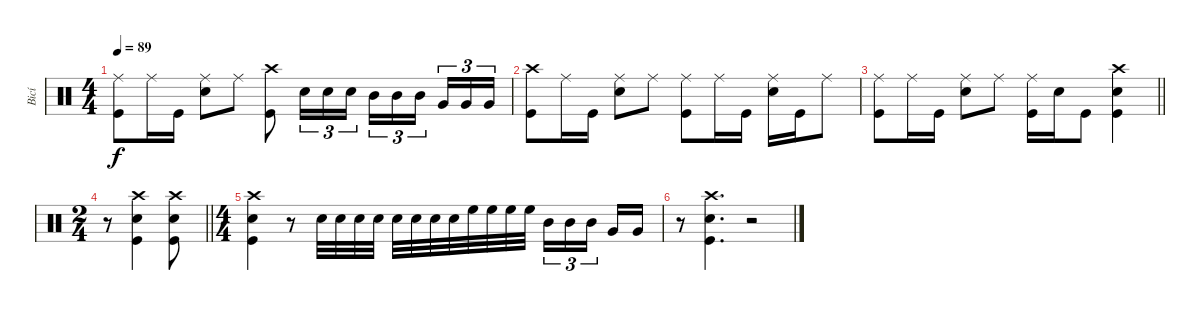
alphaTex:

\track ("Bicí" "Bicí") {instrument percussion}
\staff {score}
\articulation defaults
\ts (4 4)
\tempo 89
\clef neutral
\ks c
("Kick (hit)" "Ride (middle)").8{dy f} "Ride (middle)".16{beam merge} "Kick (hit)".16 ("Snare (hit) 2" "Ride (middle)").8 "Ride (middle)".8 ("Kick (hit)" "Crash high (hit)").8 "Snare (hit) 2".16{tu (3 2)} "Snare (hit) 2".16{tu (3 2)} "Snare (hit) 2".16{tu (3 2)} "Mid Tom (hit)".16{tu (3 2)} "Mid Tom (hit)".16{tu (3 2)} "Mid Tom (hit)".16{tu (3 2) beam splitsecondary} "Very Low Tom (hit)".16{tu (3 2)} "Very Low Tom (hit)".16{tu (3 2)} "Very Low Tom (hit)".16{tu (3 2)} |
("Kick (hit)" "Crash high (hit)").8 "Ride (middle)".16{beam merge} "Kick (hit)".16 ("Snare (hit) 2" "Ride (middle)").8{beam Down} "Ride (middle)".8{beam Down} ("Kick (hit)" "Ride (middle)").8 "Ride (middle)".16{beam merge} "Kick (hit)".16 ("Ride (middle)" "Snare (hit) 2").16{beam Down} "Kick (hit)".16{beam Down} "Ride (middle)".8{beam Down} |
\barLineRight lightlight
("Kick (hit)" "Ride (middle)").8 "Ride (middle)".16{beam merge} "Kick (hit)".16 ("Snare (hit) 2" "Ride (middle)").8 "Ride (middle)".8 ("Kick (hit)" "Ride (middle)").16 "Snare (hit) 2".16 "Kick (hit)".8 ("Kick (hit)" "Snare (hit) 2" "Crash high (hit)").4 |
\ts (2 4)
\barLineRight lightlight
r.8 ("Crash high (hit)" "Kick (hit)" "Snare (hit) 2").4 ("Crash high (hit)" "Kick (hit)" "Snare (hit) 2").8 |
\ts (4 4)
("Kick (hit)" "Snare (hit) 2" "Crash high (hit)").4 r.8 "Snare (hit) 2".32 "Snare (hit) 2".32 "Snare (hit) 2".32 "Snare (hit) 2".32 "Snare (hit) 2".32 "Snare (hit) 2".32 "Snare (hit) 2".32 "Snare (hit) 2".32 "High Floor Tom (hit)".32 "High Floor Tom (hit)".32 "High Floor Tom (hit)".32 "High Floor Tom (hit)".32 "Mid Tom (hit)".16{tu (3 2)} "Mid Tom (hit)".16{tu (3 2)} "Mid Tom (hit)".16{tu (3 2) beam splitsecondary} "Very Low Tom (hit)".16 "Very Low Tom (hit)".16 |
r.8 ("Kick (hit)" "Snare (hit) 2" "Crash high (hit)").4{d} r.2
